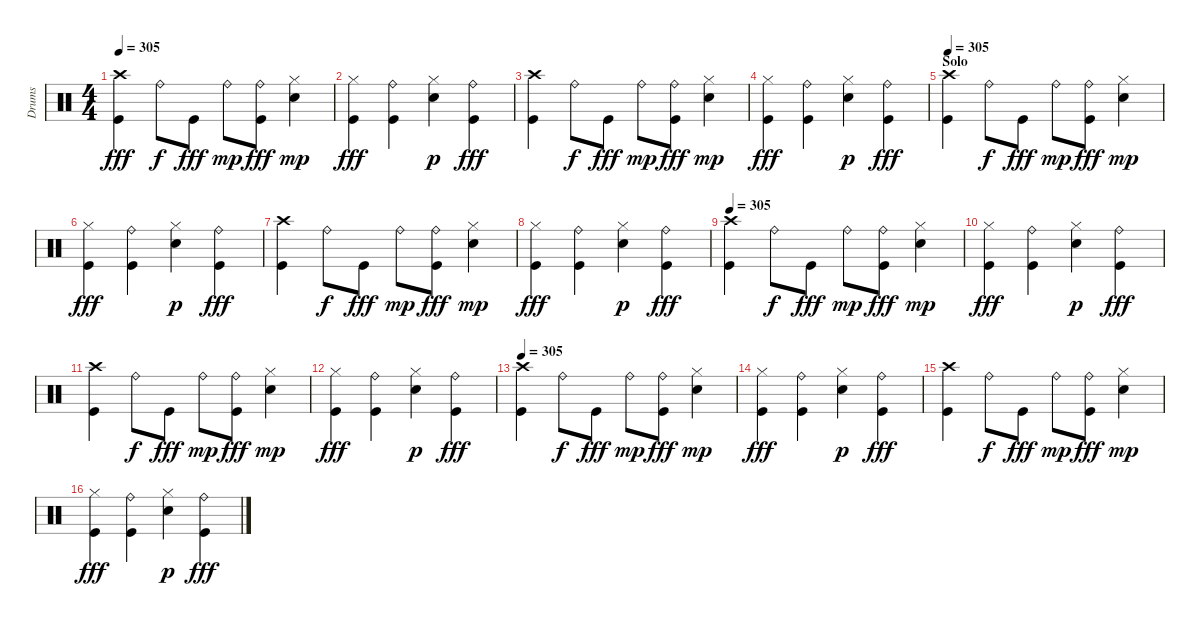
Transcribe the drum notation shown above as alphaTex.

\track ("Drums" "Drums") {instrument percussion}
\staff {score}
\articulation defaults
\ts (4 4)
\tempo 305
\clef neutral
\ks c
("Crash high (hit)" "Kick (hit)").4{dy fff} "Ride (bell)".8{dy f} "Kick (hit)".8{dy fff} "Ride (bell)".8{dy mp} ("Ride (bell)" "Kick (hit)").8{dy fff} ("Hi-Hat (closed)" "Electric Snare (hit)").4{dy mp} |
("Hi-Hat (closed)" "Kick (hit)").4{dy fff} ("Ride (bell)" "Kick (hit)").4 ("Hi-Hat (closed)" "Electric Snare (hit)").4{dy p} ("Ride (bell)" "Kick (hit)").4{dy fff} |
("Crash high (hit)" "Kick (hit)").4 "Ride (bell)".8{dy f} "Kick (hit)".8{dy fff} "Ride (bell)".8{dy mp} ("Ride (bell)" "Kick (hit)").8{dy fff} ("Hi-Hat (closed)" "Electric Snare (hit)").4{dy mp} |
("Hi-Hat (closed)" "Kick (hit)").4{dy fff} ("Ride (bell)" "Kick (hit)").4 ("Hi-Hat (closed)" "Electric Snare (hit)").4{dy p} ("Ride (bell)" "Kick (hit)").4{dy fff} |
\section ("" "Solo")
\tempo 305
("Crash high (hit)" "Kick (hit)").4 "Ride (bell)".8{dy f} "Kick (hit)".8{dy fff} "Ride (bell)".8{dy mp} ("Ride (bell)" "Kick (hit)").8{dy fff} ("Hi-Hat (closed)" "Electric Snare (hit)").4{dy mp} |
("Hi-Hat (closed)" "Kick (hit)").4{dy fff} ("Ride (bell)" "Kick (hit)").4 ("Hi-Hat (closed)" "Electric Snare (hit)").4{dy p} ("Ride (bell)" "Kick (hit)").4{dy fff} |
("Crash high (hit)" "Kick (hit)").4 "Ride (bell)".8{dy f} "Kick (hit)".8{dy fff} "Ride (bell)".8{dy mp} ("Ride (bell)" "Kick (hit)").8{dy fff} ("Hi-Hat (closed)" "Electric Snare (hit)").4{dy mp} |
("Hi-Hat (closed)" "Kick (hit)").4{dy fff} ("Ride (bell)" "Kick (hit)").4 ("Hi-Hat (closed)" "Electric Snare (hit)").4{dy p} ("Ride (bell)" "Kick (hit)").4{dy fff} |
\tempo 305
("Crash high (hit)" "Kick (hit)").4 "Ride (bell)".8{dy f} "Kick (hit)".8{dy fff} "Ride (bell)".8{dy mp} ("Ride (bell)" "Kick (hit)").8{dy fff} ("Hi-Hat (closed)" "Electric Snare (hit)").4{dy mp} |
("Hi-Hat (closed)" "Kick (hit)").4{dy fff} ("Ride (bell)" "Kick (hit)").4 ("Hi-Hat (closed)" "Electric Snare (hit)").4{dy p} ("Ride (bell)" "Kick (hit)").4{dy fff} |
("Crash high (hit)" "Kick (hit)").4 "Ride (bell)".8{dy f} "Kick (hit)".8{dy fff} "Ride (bell)".8{dy mp} ("Ride (bell)" "Kick (hit)").8{dy fff} ("Hi-Hat (closed)" "Electric Snare (hit)").4{dy mp} |
("Hi-Hat (closed)" "Kick (hit)").4{dy fff} ("Ride (bell)" "Kick (hit)").4 ("Hi-Hat (closed)" "Electric Snare (hit)").4{dy p} ("Ride (bell)" "Kick (hit)").4{dy fff} |
\tempo 305
("Crash high (hit)" "Kick (hit)").4 "Ride (bell)".8{dy f} "Kick (hit)".8{dy fff} "Ride (bell)".8{dy mp} ("Ride (bell)" "Kick (hit)").8{dy fff} ("Hi-Hat (closed)" "Electric Snare (hit)").4{dy mp} |
("Hi-Hat (closed)" "Kick (hit)").4{dy fff} ("Ride (bell)" "Kick (hit)").4 ("Hi-Hat (closed)" "Electric Snare (hit)").4{dy p} ("Ride (bell)" "Kick (hit)").4{dy fff} |
("Crash high (hit)" "Kick (hit)").4 "Ride (bell)".8{dy f} "Kick (hit)".8{dy fff} "Ride (bell)".8{dy mp} ("Ride (bell)" "Kick (hit)").8{dy fff} ("Hi-Hat (closed)" "Electric Snare (hit)").4{dy mp} |
("Hi-Hat (closed)" "Kick (hit)").4{dy fff} ("Ride (bell)" "Kick (hit)").4 ("Hi-Hat (closed)" "Electric Snare (hit)").4{dy p} ("Ride (bell)" "Kick (hit)").4{dy fff}
